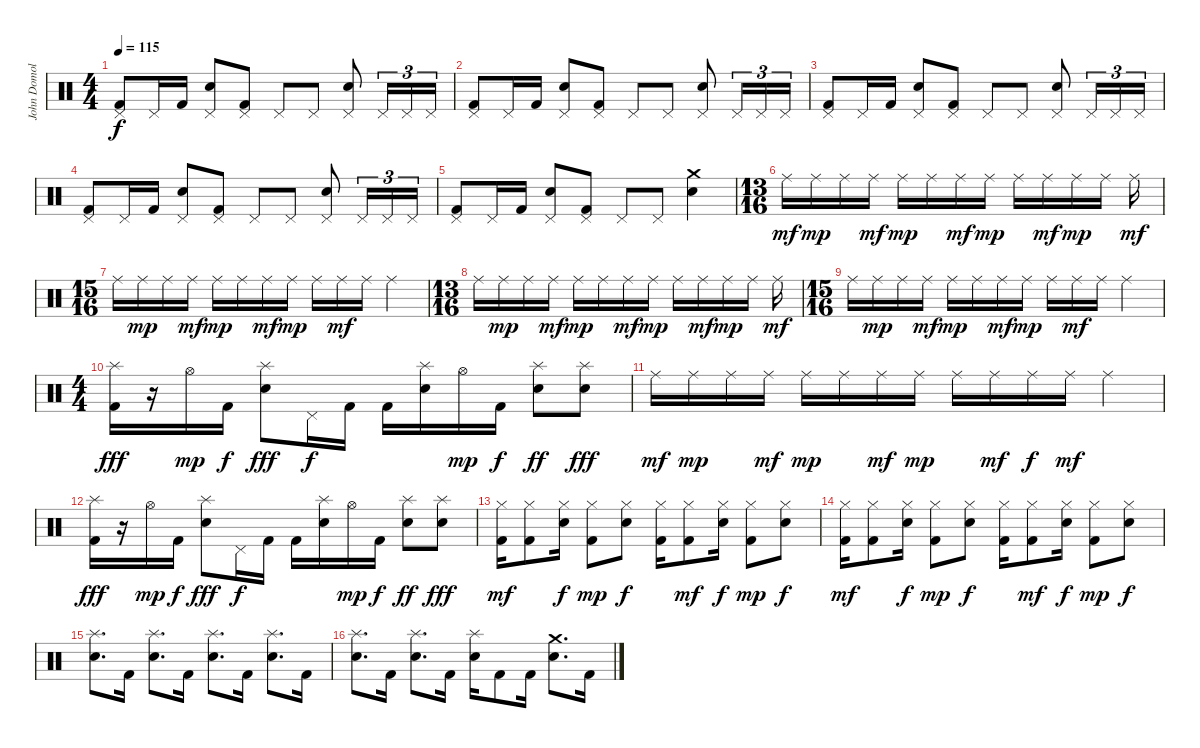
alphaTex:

\track ("John Domolyan (Drums)" "John Domol") {instrument percussion}
\staff {score}
\articulation defaults
\ts (4 4)
\tempo 115
\clef neutral
\ks c
("Pedal Hi-Hat (hit)" "Kick (hit) 2").8{dy f} "Pedal Hi-Hat (hit)".16 "Kick (hit) 2".16 ("Pedal Hi-Hat (hit)" "Electric Snare (hit)").8 ("Pedal Hi-Hat (hit)" "Kick (hit) 2").8 "Pedal Hi-Hat (hit)".8 "Pedal Hi-Hat (hit)".8 ("Pedal Hi-Hat (hit)" "Electric Snare (hit)").8 "Pedal Hi-Hat (hit)".16{tu (3 2)} "Pedal Hi-Hat (hit)".16{tu (3 2)} "Pedal Hi-Hat (hit)".16{tu (3 2)} |
("Pedal Hi-Hat (hit)" "Kick (hit) 2").8 "Pedal Hi-Hat (hit)".16 "Kick (hit) 2".16 ("Pedal Hi-Hat (hit)" "Electric Snare (hit)").8 ("Pedal Hi-Hat (hit)" "Kick (hit) 2").8 "Pedal Hi-Hat (hit)".8 "Pedal Hi-Hat (hit)".8 ("Pedal Hi-Hat (hit)" "Electric Snare (hit)").8 "Pedal Hi-Hat (hit)".16{tu (3 2)} "Pedal Hi-Hat (hit)".16{tu (3 2)} "Pedal Hi-Hat (hit)".16{tu (3 2)} |
("Pedal Hi-Hat (hit)" "Kick (hit) 2").8 "Pedal Hi-Hat (hit)".16 "Kick (hit) 2".16 ("Pedal Hi-Hat (hit)" "Electric Snare (hit)").8 ("Pedal Hi-Hat (hit)" "Kick (hit) 2").8 "Pedal Hi-Hat (hit)".8 "Pedal Hi-Hat (hit)".8 ("Pedal Hi-Hat (hit)" "Electric Snare (hit)").8 "Pedal Hi-Hat (hit)".16{tu (3 2)} "Pedal Hi-Hat (hit)".16{tu (3 2)} "Pedal Hi-Hat (hit)".16{tu (3 2)} |
("Pedal Hi-Hat (hit)" "Kick (hit) 2").8 "Pedal Hi-Hat (hit)".16 "Kick (hit) 2".16 ("Pedal Hi-Hat (hit)" "Electric Snare (hit)").8 ("Pedal Hi-Hat (hit)" "Kick (hit) 2").8 "Pedal Hi-Hat (hit)".8 "Pedal Hi-Hat (hit)".8 ("Pedal Hi-Hat (hit)" "Electric Snare (hit)").8 "Pedal Hi-Hat (hit)".16{tu (3 2)} "Pedal Hi-Hat (hit)".16{tu (3 2)} "Pedal Hi-Hat (hit)".16{tu (3 2)} |
("Pedal Hi-Hat (hit)" "Kick (hit) 2").8 "Pedal Hi-Hat (hit)".16 "Kick (hit) 2".16 ("Pedal Hi-Hat (hit)" "Electric Snare (hit)").8 ("Pedal Hi-Hat (hit)" "Kick (hit) 2").8 "Pedal Hi-Hat (hit)".8 "Pedal Hi-Hat (hit)".8 ("Crash medium (hit)" "Electric Snare (hit)").4 |
\ts (13 16)
"Ride (middle)".16{dy mf} "Ride (middle)".16{dy mp} "Ride (middle)".16 "Ride (middle)".16{dy mf} "Ride (middle)".16{dy mp} "Ride (middle)".16 "Ride (middle)".16{dy mf} "Ride (middle)".16{dy mp} "Ride (middle)".16 "Ride (middle)".16{dy mf} "Ride (middle)".16{dy mp} "Ride (middle)".16 "Ride (middle)".16{dy mf} |
\ts (15 16)
"Ride (middle)".16 "Ride (middle)".16{dy mp} "Ride (middle)".16 "Ride (middle)".16{dy mf} "Ride (middle)".16{dy mp} "Ride (middle)".16 "Ride (middle)".16{dy mf} "Ride (middle)".16{dy mp} "Ride (middle)".16 "Ride (middle)".16{dy mf} "Ride (middle)".16 "Ride (middle)".4 |
\ts (13 16)
"Ride (middle)".16 "Ride (middle)".16{dy mp} "Ride (middle)".16 "Ride (middle)".16{dy mf} "Ride (middle)".16{dy mp} "Ride (middle)".16 "Ride (middle)".16{dy mf} "Ride (middle)".16{dy mp} "Ride (middle)".16 "Ride (middle)".16{dy mf} "Ride (middle)".16{dy mp} "Ride (middle)".16 "Ride (middle)".16{dy mf} |
\ts (15 16)
"Ride (middle)".16 "Ride (middle)".16{dy mp} "Ride (middle)".16 "Ride (middle)".16{dy mf} "Ride (middle)".16{dy mp} "Ride (middle)".16 "Ride (middle)".16{dy mf} "Ride (middle)".16{dy mp} "Ride (middle)".16 "Ride (middle)".16{dy mf} "Ride (middle)".16 "Ride (middle)".4 |
\ts (4 4)
("Splash (hit)" "Kick (hit) 2").16{dy fff} r.16 "Hi-Hat (open)".16{dy mp} "Kick (hit) 2".16{dy f} ("Splash (hit)" "Electric Snare (hit)").8{dy fff} "Pedal Hi-Hat (hit)".16{dy f} "Kick (hit) 2".16 "Kick (hit) 2".16 ("Splash (hit)" "Electric Snare (hit)").16 "Hi-Hat (open)".16{dy mp} "Kick (hit) 2".16{dy f} ("Splash (hit)" "Electric Snare (hit)").8{dy ff} ("Splash (hit)" "Electric Snare (hit)").8{dy fff} |
"Ride (middle)".16{dy mf} "Ride (middle)".16{dy mp} "Ride (middle)".16 "Ride (middle)".16{dy mf} "Ride (middle)".16{dy mp} "Ride (middle)".16 "Ride (middle)".16{dy mf} "Ride (middle)".16{dy mp} "Ride (middle)".16 "Ride (middle)".16{dy mf} "Ride (middle)".16{dy f} "Ride (middle)".16{dy mf} "Ride (middle)".4 |
("Splash (hit)" "Kick (hit) 2").16{dy fff} r.16 "Hi-Hat (open)".16{dy mp} "Kick (hit) 2".16{dy f} ("Splash (hit)" "Electric Snare (hit)").8{dy fff} "Pedal Hi-Hat (hit)".16{dy f} "Kick (hit) 2".16 "Kick (hit) 2".16 ("Splash (hit)" "Electric Snare (hit)").16 "Hi-Hat (open)".16{dy mp} "Kick (hit) 2".16{dy f} ("Splash (hit)" "Electric Snare (hit)").8{dy ff} ("Splash (hit)" "Electric Snare (hit)").8{dy fff} |
("Hi-Hat (closed)" "Kick (hit) 2").16{dy mf} ("Hi-Hat (closed)" "Kick (hit) 2").8 ("Hi-Hat (closed)" "Electric Snare (hit)").16{dy f} ("Hi-Hat (closed)" "Kick (hit) 2").8{dy mp} ("Hi-Hat (closed)" "Electric Snare (hit)").8{dy f} ("Hi-Hat (closed)" "Kick (hit) 2").16 ("Hi-Hat (closed)" "Kick (hit) 2").8{dy mf} ("Hi-Hat (closed)" "Electric Snare (hit)").16{dy f} ("Hi-Hat (closed)" "Kick (hit) 2").8{dy mp} ("Hi-Hat (closed)" "Electric Snare (hit)").8{dy f} |
("Hi-Hat (closed)" "Kick (hit) 2").16{dy mf} ("Hi-Hat (closed)" "Kick (hit) 2").8 ("Hi-Hat (closed)" "Electric Snare (hit)").16{dy f} ("Hi-Hat (closed)" "Kick (hit) 2").8{dy mp} ("Hi-Hat (closed)" "Electric Snare (hit)").8{dy f} ("Hi-Hat (closed)" "Kick (hit) 2").16 ("Hi-Hat (closed)" "Kick (hit) 2").8{dy mf} ("Hi-Hat (closed)" "Electric Snare (hit)").16{dy f} ("Hi-Hat (closed)" "Kick (hit) 2").8{dy mp} ("Hi-Hat (closed)" "Electric Snare (hit)").8{dy f} |
("Splash (hit)" "Electric Snare (hit)").8{d} "Kick (hit) 2".16 ("Splash (hit)" "Electric Snare (hit)").8{d} "Kick (hit) 2".16 ("Splash (hit)" "Electric Snare (hit)").8{d} "Kick (hit) 2".16 ("Splash (hit)" "Electric Snare (hit)").8{d} "Kick (hit) 2".16 |
("Splash (hit)" "Electric Snare (hit)").8{d} "Kick (hit) 2".16 ("Splash (hit)" "Electric Snare (hit)").8{d} "Kick (hit) 2".16 ("Splash (hit)" "Electric Snare (hit)").16 "Kick (hit) 2".8 "Kick (hit) 2".16 ("Crash medium (hit)" "Electric Snare (hit)").8{d} "Kick (hit) 2".16
